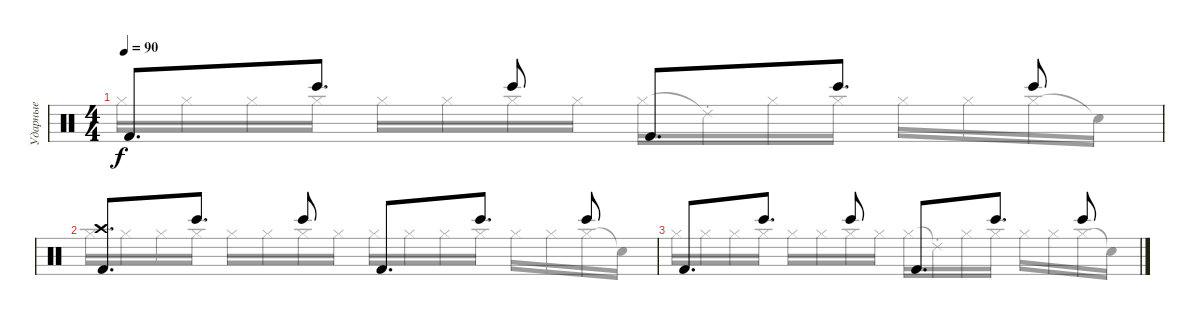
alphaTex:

\track ("Ударные" "Ударные") {instrument percussion}
\staff {score}
\articulation defaults
\voice
\ts (4 4)
\tempo 90
\clef neutral
\ks c "Kick (hit) 2".8{d dy f} "Bongo High (hit)".8{d} "Bongo High (hit)".8 "Kick (hit) 2".8{d} "Bongo High (hit)".8{d} "Bongo High (hit)".8
|
("Kick (hit) 2" "Crash high (hit)").8{d} "Bongo High (hit)".8{d} "Bongo High (hit)".8 "Kick (hit) 2".8{d} "Bongo High (hit)".8{d} "Bongo High (hit)".8 |
"Kick (hit) 2".8{d} "Bongo High (hit)".8{d} "Bongo High (hit)".8 "Kick (hit) 2".8{d} "Bongo High (hit)".8{d} "Bongo High (hit)".8 |
|
|
\voice
\clef neutral
\ottava regular
\simile none
\ks c "Hi-Hat (closed)".16{dy f} "Hi-Hat (closed)".16 "Hi-Hat (closed)".16 "Hi-Hat (closed)".16 "Hi-Hat (closed)".16 "Hi-Hat (closed)".16 "Hi-Hat (closed)".16 "Hi-Hat (closed)".16 "Hi-Hat (closed)".16 "Ride (choke) 2"{t}.16 "Hi-Hat (closed)".16 "Hi-Hat (closed)".16 "Hi-Hat (closed)".16 "Hi-Hat (closed)".16 "Hi-Hat (closed)".16 "Snare (hit)"{t}.16
|
"Hi-Hat (closed)".16 "Hi-Hat (closed)".16 "Hi-Hat (closed)".16 "Hi-Hat (closed)".16 "Hi-Hat (closed)".16 "Hi-Hat (closed)".16 "Hi-Hat (closed)".16 "Hi-Hat (closed)".16 "Hi-Hat (closed)".16 "Hi-Hat (closed)".16 "Hi-Hat (closed)".16 "Hi-Hat (closed)".16 "Hi-Hat (closed)".16 "Hi-Hat (closed)".16 "Hi-Hat (closed)".16 "Snare (hit)"{t}.16 |
"Hi-Hat (closed)".16 "Hi-Hat (closed)".16 "Hi-Hat (closed)".16 "Hi-Hat (closed)".16 "Hi-Hat (closed)".16 "Hi-Hat (closed)".16 "Hi-Hat (closed)".16 "Hi-Hat (closed)".16 "Hi-Hat (closed)".16 "Ride (choke) 2"{t}.16 "Hi-Hat (closed)".16 "Hi-Hat (closed)".16 "Hi-Hat (closed)".16 "Hi-Hat (closed)".16 "Hi-Hat (closed)".16 "Snare (hit)"{t}.16 |
|
|
